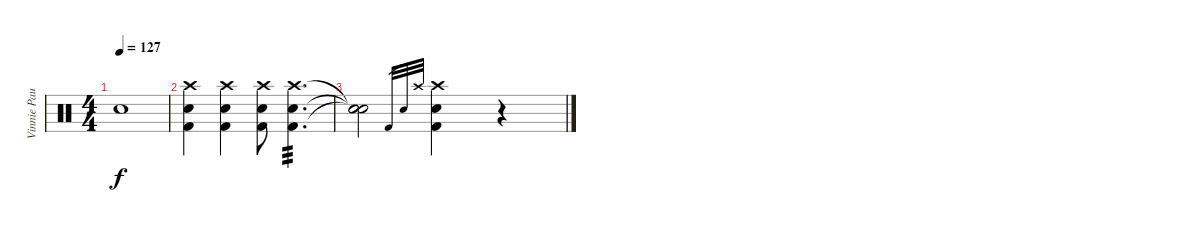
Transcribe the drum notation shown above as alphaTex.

\track ("Vinnie Paul" "Vinnie Pau") {instrument percussion}
\staff {score}
\articulation defaults
\ts (4 4)
\tempo 127
\clef neutral
\ks c "Snare (hit)"{t}.1{dy f}
|
("Kick (hit) 2" "Snare (hit) 2" "Crash high (hit)").4 ("Kick (hit) 2" "Snare (hit) 2" "Crash high (hit)").4 ("Kick (hit) 2" "Snare (hit) 2" "Crash high (hit)").8 ("Kick (hit) 2" "Snare (hit) 2" "Crash high (hit)").4{d tp 3} |
("Snare (hit)"{t} "Snare (hit)"{t} "Snare (hit)"{t}).2 "Kick (hit) 2".32{gr} "Snare (hit) 2".32{gr} "Crash high (hit)".32{gr} ("Kick (hit) 2" "Snare (hit) 2" "Crash high (hit)").4 r.4
